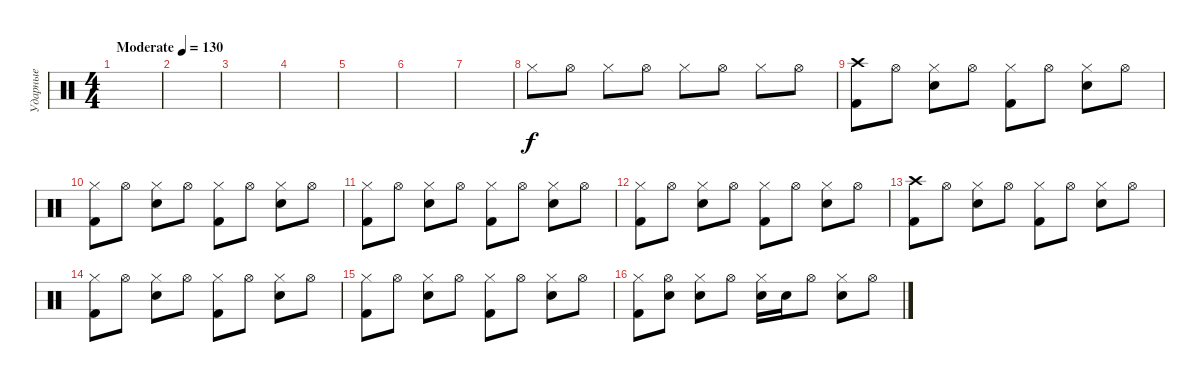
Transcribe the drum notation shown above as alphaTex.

\track ("Ударные" "Ударные") {instrument percussion}
\staff {score}
\articulation defaults
\ts (4 4)
\tempo (130 "Moderate")
\clef neutral
\ks c
|
|
|
|
|
|
|
"Hi-Hat (closed)".8 "Hi-Hat (open)".8 "Hi-Hat (closed)".8 "Hi-Hat (open)".8 "Hi-Hat (closed)".8 "Hi-Hat (open)".8 "Hi-Hat (closed)".8 "Hi-Hat (open)".8 |
("Crash high (hit)" "Kick (hit) 2").8 "Hi-Hat (open)".8 ("Hi-Hat (closed)" "Snare (hit) 2").8 "Hi-Hat (open)".8 ("Hi-Hat (closed)" "Kick (hit) 2").8 "Hi-Hat (open)".8 ("Hi-Hat (closed)" "Snare (hit) 2").8 "Hi-Hat (open)".8 |
("Hi-Hat (closed)" "Kick (hit) 2").8 "Hi-Hat (open)".8 ("Hi-Hat (closed)" "Snare (hit) 2").8 "Hi-Hat (open)".8 ("Hi-Hat (closed)" "Kick (hit) 2").8 "Hi-Hat (open)".8 ("Hi-Hat (closed)" "Snare (hit) 2").8 "Hi-Hat (open)".8 |
("Hi-Hat (closed)" "Kick (hit) 2").8 "Hi-Hat (open)".8 ("Hi-Hat (closed)" "Snare (hit) 2").8 "Hi-Hat (open)".8 ("Hi-Hat (closed)" "Kick (hit) 2").8 "Hi-Hat (open)".8 ("Hi-Hat (closed)" "Snare (hit) 2").8 "Hi-Hat (open)".8 |
("Hi-Hat (closed)" "Kick (hit) 2").8 "Hi-Hat (open)".8 ("Hi-Hat (closed)" "Snare (hit) 2").8 "Hi-Hat (open)".8 ("Hi-Hat (closed)" "Kick (hit) 2").8 "Hi-Hat (open)".8 ("Hi-Hat (closed)" "Snare (hit) 2").8 "Hi-Hat (open)".8 |
("Crash high (hit)" "Kick (hit) 2").8 "Hi-Hat (open)".8 ("Hi-Hat (closed)" "Snare (hit) 2").8 "Hi-Hat (open)".8 ("Hi-Hat (closed)" "Kick (hit) 2").8 "Hi-Hat (open)".8 ("Hi-Hat (closed)" "Snare (hit) 2").8 "Hi-Hat (open)".8 |
("Hi-Hat (closed)" "Kick (hit) 2").8 "Hi-Hat (open)".8 ("Hi-Hat (closed)" "Snare (hit) 2").8 "Hi-Hat (open)".8 ("Hi-Hat (closed)" "Kick (hit) 2").8 "Hi-Hat (open)".8 ("Hi-Hat (closed)" "Snare (hit) 2").8 "Hi-Hat (open)".8 |
("Hi-Hat (closed)" "Kick (hit) 2").8 "Hi-Hat (open)".8 ("Hi-Hat (closed)" "Snare (hit) 2").8 "Hi-Hat (open)".8 ("Hi-Hat (closed)" "Kick (hit) 2").8 "Hi-Hat (open)".8 ("Hi-Hat (closed)" "Snare (hit) 2").8 "Hi-Hat (open)".8 |
("Hi-Hat (closed)" "Kick (hit) 2").8 ("Hi-Hat (open)" "Snare (hit) 2").8 ("Hi-Hat (closed)" "Snare (hit) 2").8 "Hi-Hat (open)".8 ("Hi-Hat (closed)" "Snare (hit) 2").16 "Snare (hit) 2".16 "Hi-Hat (open)".8 ("Hi-Hat (closed)" "Snare (hit) 2").8 "Hi-Hat (open)".8
